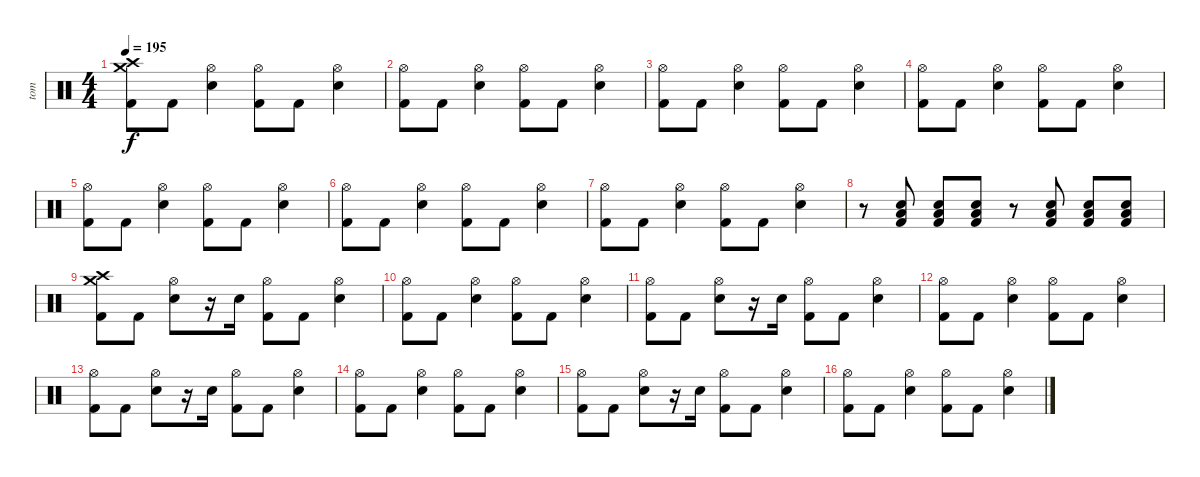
\track ("tom" "tom") {instrument percussion}
\staff {score}
\articulation defaults
\ts (4 4)
\tempo 195
\clef neutral
\ks c
("Crash medium (hit)" "Crash high (hit)" "Kick (hit) 2").8{dy f} "Kick (hit) 2".8 ("Hi-Hat (open)" "Electric Snare (hit)").4 ("Hi-Hat (open)" "Kick (hit) 2").8 "Kick (hit) 2".8 ("Hi-Hat (open)" "Electric Snare (hit)").4 |
("Hi-Hat (open)" "Kick (hit) 2").8 "Kick (hit) 2".8 ("Hi-Hat (open)" "Electric Snare (hit)").4 ("Hi-Hat (open)" "Kick (hit) 2").8 "Kick (hit) 2".8 ("Hi-Hat (open)" "Electric Snare (hit)").4 |
("Hi-Hat (open)" "Kick (hit) 2").8 "Kick (hit) 2".8 ("Hi-Hat (open)" "Electric Snare (hit)").4 ("Hi-Hat (open)" "Kick (hit) 2").8 "Kick (hit) 2".8 ("Hi-Hat (open)" "Electric Snare (hit)").4 |
("Hi-Hat (open)" "Kick (hit) 2").8 "Kick (hit) 2".8 ("Hi-Hat (open)" "Electric Snare (hit)").4 ("Hi-Hat (open)" "Kick (hit) 2").8 "Kick (hit) 2".8 ("Hi-Hat (open)" "Electric Snare (hit)").4 |
("Hi-Hat (open)" "Kick (hit) 2").8 "Kick (hit) 2".8 ("Hi-Hat (open)" "Electric Snare (hit)").4 ("Hi-Hat (open)" "Kick (hit) 2").8 "Kick (hit) 2".8 ("Hi-Hat (open)" "Electric Snare (hit)").4 |
("Hi-Hat (open)" "Kick (hit) 2").8 "Kick (hit) 2".8 ("Hi-Hat (open)" "Electric Snare (hit)").4 ("Hi-Hat (open)" "Kick (hit) 2").8 "Kick (hit) 2".8 ("Hi-Hat (open)" "Electric Snare (hit)").4 |
("Hi-Hat (open)" "Kick (hit) 2").8 "Kick (hit) 2".8 ("Hi-Hat (open)" "Electric Snare (hit)").4 ("Hi-Hat (open)" "Kick (hit) 2").8 "Kick (hit) 2".8 ("Hi-Hat (open)" "Electric Snare (hit)").4 |
r.8 ("Electric Snare (hit)" "Low Tom (hit)" "Kick (hit) 2").8 ("Electric Snare (hit)" "Low Tom (hit)" "Kick (hit) 2").8 ("Electric Snare (hit)" "Low Tom (hit)" "Kick (hit) 2").8 r.8 ("Electric Snare (hit)" "Low Tom (hit)" "Kick (hit) 2").8 ("Electric Snare (hit)" "Low Tom (hit)" "Kick (hit) 2").8 ("Electric Snare (hit)" "Low Tom (hit)" "Kick (hit) 2").8 |
("Crash high (hit)" "Crash medium (hit)" "Kick (hit) 2").8 "Kick (hit) 2".8 ("Hi-Hat (open)" "Electric Snare (hit)").8 r.16 "Electric Snare (hit)".16 ("Hi-Hat (open)" "Kick (hit) 2").8 "Kick (hit) 2".8 ("Hi-Hat (open)" "Electric Snare (hit)").4 |
("Hi-Hat (open)" "Kick (hit) 2").8 "Kick (hit) 2".8 ("Hi-Hat (open)" "Electric Snare (hit)").4 ("Hi-Hat (open)" "Kick (hit) 2").8 "Kick (hit) 2".8 ("Hi-Hat (open)" "Electric Snare (hit)").4 |
("Hi-Hat (open)" "Kick (hit) 2").8 "Kick (hit) 2".8 ("Hi-Hat (open)" "Electric Snare (hit)").8 r.16 "Electric Snare (hit)".16 ("Hi-Hat (open)" "Kick (hit) 2").8 "Kick (hit) 2".8 ("Hi-Hat (open)" "Electric Snare (hit)").4 |
("Hi-Hat (open)" "Kick (hit) 2").8 "Kick (hit) 2".8 ("Hi-Hat (open)" "Electric Snare (hit)").4 ("Hi-Hat (open)" "Kick (hit) 2").8 "Kick (hit) 2".8 ("Hi-Hat (open)" "Electric Snare (hit)").4 |
("Hi-Hat (open)" "Kick (hit) 2").8 "Kick (hit) 2".8 ("Hi-Hat (open)" "Electric Snare (hit)").8 r.16 "Electric Snare (hit)".16 ("Hi-Hat (open)" "Kick (hit) 2").8 "Kick (hit) 2".8 ("Hi-Hat (open)" "Electric Snare (hit)").4 |
("Hi-Hat (open)" "Kick (hit) 2").8 "Kick (hit) 2".8 ("Hi-Hat (open)" "Electric Snare (hit)").4 ("Hi-Hat (open)" "Kick (hit) 2").8 "Kick (hit) 2".8 ("Hi-Hat (open)" "Electric Snare (hit)").4 |
("Hi-Hat (open)" "Kick (hit) 2").8 "Kick (hit) 2".8 ("Hi-Hat (open)" "Electric Snare (hit)").8 r.16 "Electric Snare (hit)".16 ("Hi-Hat (open)" "Kick (hit) 2").8 "Kick (hit) 2".8 ("Hi-Hat (open)" "Electric Snare (hit)").4 |
("Hi-Hat (open)" "Kick (hit) 2").8 "Kick (hit) 2".8 ("Hi-Hat (open)" "Electric Snare (hit)").4 ("Hi-Hat (open)" "Kick (hit) 2").8 "Kick (hit) 2".8 ("Hi-Hat (open)" "Electric Snare (hit)").4
